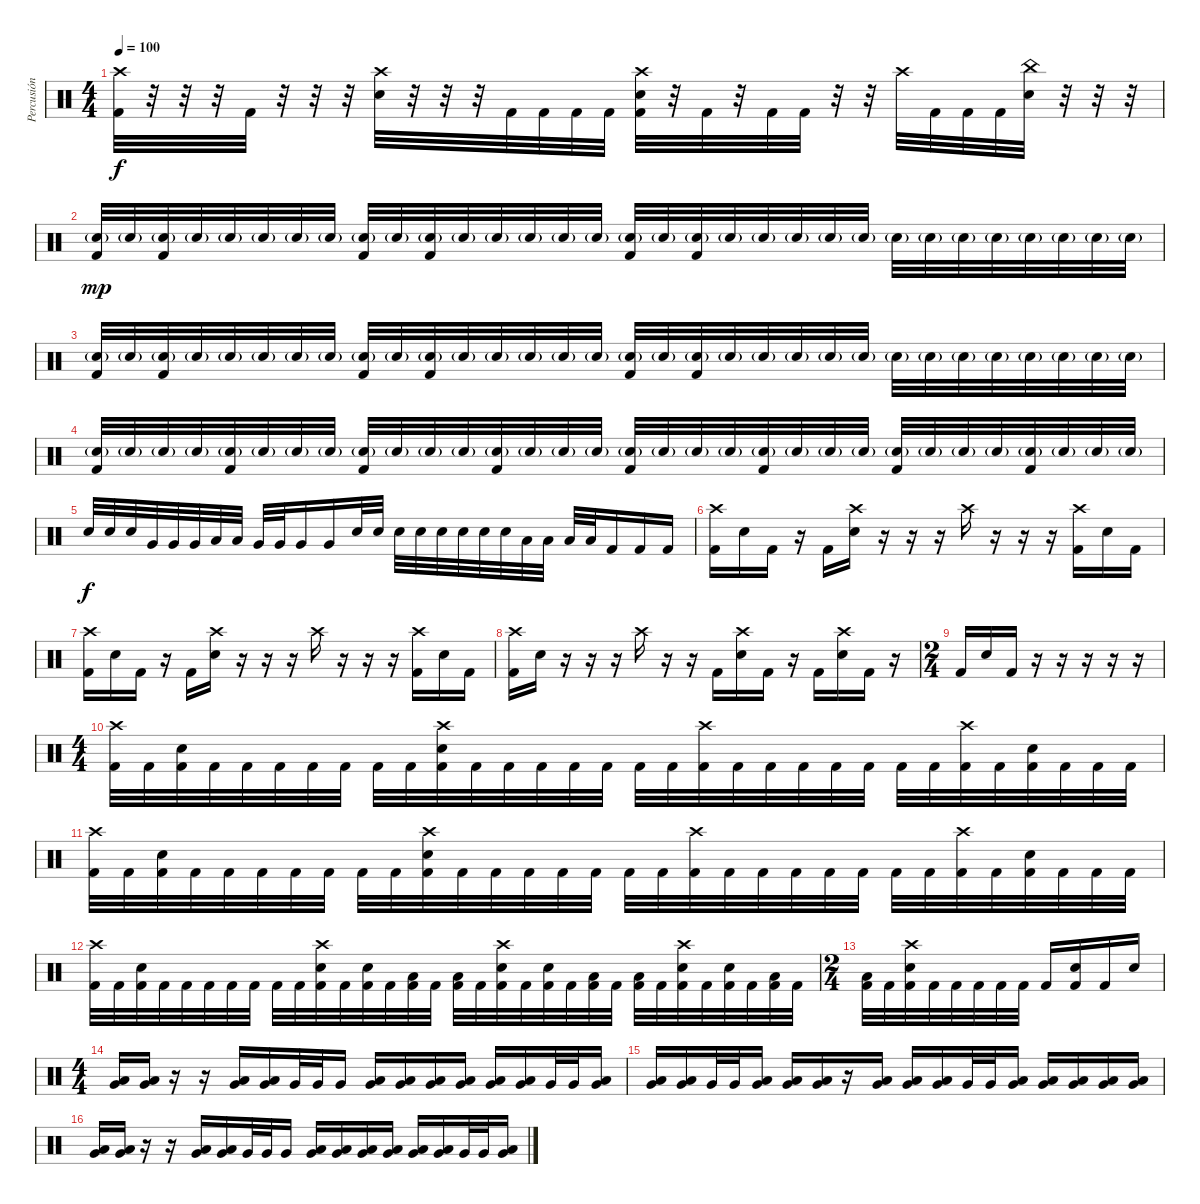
\track ("Percusión" "Percusión") {instrument percussion}
\staff {score}
\articulation defaults
\ts (4 4)
\tempo 100
\clef neutral
\ks c
("Crash high (hit)" "Kick (hit) 2").32{dy f} r.32 r.32 r.32 "Kick (hit) 2".32 r.32 r.32 r.32 ("Crash high (hit)" "Electric Snare (hit)").32 r.32 r.32 r.32 "Kick (hit) 2".32 "Kick (hit) 2".32 "Kick (hit) 2".32 "Kick (hit) 2".32 ("Crash high (hit)" "Electric Snare (hit)" "Kick (hit) 2").32 r.32 "Kick (hit) 2".32 r.32 "Kick (hit) 2".32 "Kick (hit) 2".32 r.32 r.32 "Crash high (hit)".32 "Kick (hit) 2".32 "Kick (hit) 2".32 "Kick (hit) 2".32 ("China (hit)" "Electric Snare (hit)").32 r.32 r.32 r.32 |
("Electric Snare (hit)"{g} "Kick (hit) 2").32{dy mp} "Electric Snare (hit)"{g}.32 ("Electric Snare (hit)"{g} "Kick (hit) 2").32 "Electric Snare (hit)"{g}.32 "Electric Snare (hit)"{g}.32 "Electric Snare (hit)"{g}.32 "Electric Snare (hit)"{g}.32 "Electric Snare (hit)"{g}.32 ("Electric Snare (hit)"{g} "Kick (hit) 2").32 "Electric Snare (hit)"{g}.32 ("Electric Snare (hit)"{g} "Kick (hit) 2").32 "Electric Snare (hit)"{g}.32 "Electric Snare (hit)"{g}.32 "Electric Snare (hit)"{g}.32 "Electric Snare (hit)"{g}.32 "Electric Snare (hit)"{g}.32 ("Electric Snare (hit)"{g} "Kick (hit) 2").32 "Electric Snare (hit)"{g}.32 ("Electric Snare (hit)"{g} "Kick (hit) 2").32 "Electric Snare (hit)"{g}.32 "Electric Snare (hit)"{g}.32 "Electric Snare (hit)"{g}.32 "Electric Snare (hit)"{g}.32 "Electric Snare (hit)"{g}.32 "Electric Snare (hit)"{g}.32 "Electric Snare (hit)"{g}.32 "Electric Snare (hit)"{g}.32 "Electric Snare (hit)"{g}.32 "Electric Snare (hit)"{g}.32 "Electric Snare (hit)"{g}.32 "Electric Snare (hit)"{g}.32 "Electric Snare (hit)"{g}.32 |
("Electric Snare (hit)"{g} "Kick (hit) 2").32 "Electric Snare (hit)"{g}.32 ("Electric Snare (hit)"{g} "Kick (hit) 2").32 "Electric Snare (hit)"{g}.32 "Electric Snare (hit)"{g}.32 "Electric Snare (hit)"{g}.32 "Electric Snare (hit)"{g}.32 "Electric Snare (hit)"{g}.32 ("Electric Snare (hit)"{g} "Kick (hit) 2").32 "Electric Snare (hit)"{g}.32 ("Electric Snare (hit)"{g} "Kick (hit) 2").32 "Electric Snare (hit)"{g}.32 "Electric Snare (hit)"{g}.32 "Electric Snare (hit)"{g}.32 "Electric Snare (hit)"{g}.32 "Electric Snare (hit)"{g}.32 ("Electric Snare (hit)"{g} "Kick (hit) 2").32 "Electric Snare (hit)"{g}.32 ("Electric Snare (hit)"{g} "Kick (hit) 2").32 "Electric Snare (hit)"{g}.32 "Electric Snare (hit)"{g}.32 "Electric Snare (hit)"{g}.32 "Electric Snare (hit)"{g}.32 "Electric Snare (hit)"{g}.32 "Electric Snare (hit)"{g}.32 "Electric Snare (hit)"{g}.32 "Electric Snare (hit)"{g}.32 "Electric Snare (hit)"{g}.32 "Electric Snare (hit)"{g}.32 "Electric Snare (hit)"{g}.32 "Electric Snare (hit)"{g}.32 "Electric Snare (hit)"{g}.32 |
("Electric Snare (hit)"{g} "Kick (hit) 2").32 "Electric Snare (hit)"{g}.32 "Electric Snare (hit)"{g}.32 "Electric Snare (hit)"{g}.32 ("Electric Snare (hit)"{g} "Kick (hit) 2").32 "Electric Snare (hit)"{g}.32 "Electric Snare (hit)"{g}.32 "Electric Snare (hit)"{g}.32 ("Electric Snare (hit)"{g} "Kick (hit) 2").32 "Electric Snare (hit)"{g}.32 "Electric Snare (hit)"{g}.32 "Electric Snare (hit)"{g}.32 ("Electric Snare (hit)"{g} "Kick (hit) 2").32 "Electric Snare (hit)"{g}.32 "Electric Snare (hit)"{g}.32 "Electric Snare (hit)"{g}.32 ("Electric Snare (hit)"{g} "Kick (hit) 2").32 "Electric Snare (hit)"{g}.32 "Electric Snare (hit)"{g}.32 "Electric Snare (hit)"{g}.32 ("Electric Snare (hit)"{g} "Kick (hit) 2").32 "Electric Snare (hit)"{g}.32 "Electric Snare (hit)"{g}.32 "Electric Snare (hit)"{g}.32 ("Electric Snare (hit)"{g} "Kick (hit) 2").32 "Electric Snare (hit)"{g}.32 "Electric Snare (hit)"{g}.32 "Electric Snare (hit)"{g}.32 ("Electric Snare (hit)"{g} "Kick (hit) 2").32 "Electric Snare (hit)"{g}.32 "Electric Snare (hit)"{g}.32 "Electric Snare (hit)"{g}.32 |
"Electric Snare (hit)".32{dy f} "Electric Snare (hit)".32 "Electric Snare (hit)".32 "Very Low Tom (hit)".32 "Very Low Tom (hit)".32 "Very Low Tom (hit)".32 "Low Tom (hit)".32 "Low Tom (hit)".32 "Very Low Tom (hit)".32 "Very Low Tom (hit)".32 "Very Low Tom (hit)".16 "Very Low Tom (hit)".16 "Electric Snare (hit)".32 "Electric Snare (hit)".32 "Electric Snare (hit)".32 "Electric Snare (hit)".32 "Electric Snare (hit)".32 "Electric Snare (hit)".32 "Electric Snare (hit)".32 "Electric Snare (hit)".32 "Low Tom (hit)".32 "Low Tom (hit)".32 "Low Tom (hit)".32 "Low Tom (hit)".32 "Kick (hit) 2".16 "Kick (hit) 2".16 "Kick (hit) 2".16 |
("Crash high (hit)" "Kick (hit) 2").16 "Electric Snare (hit)".16 "Kick (hit) 2".16 r.16 "Kick (hit) 2".16 ("Crash high (hit)" "Electric Snare (hit)").16 r.16 r.16 r.16 "Crash high (hit)".16 r.16 r.16 r.16 ("Crash high (hit)" "Kick (hit) 2").16 "Electric Snare (hit)".16 "Kick (hit) 2".16 |
("Crash high (hit)" "Kick (hit) 2").16 "Electric Snare (hit)".16 "Kick (hit) 2".16 r.16 "Kick (hit) 2".16 ("Crash high (hit)" "Electric Snare (hit)").16 r.16 r.16 r.16 "Crash high (hit)".16 r.16 r.16 r.16 ("Crash high (hit)" "Kick (hit) 2").16 "Electric Snare (hit)".16 "Kick (hit) 2".16 |
("Crash high (hit)" "Kick (hit) 2").16 "Electric Snare (hit)".16 r.16 r.16 r.16 "Crash high (hit)".16 r.16 r.16 "Kick (hit) 2".16 ("Crash high (hit)" "Electric Snare (hit)").16 "Kick (hit) 2".16 r.16 "Kick (hit) 2".16 ("Crash high (hit)" "Electric Snare (hit)").16 "Kick (hit) 2".16 r.16 |
\ts (2 4)
"Kick (hit) 2".16 "Electric Snare (hit)".16 "Kick (hit) 2".16 r.16 r.16 r.16 r.16 r.16 |
\ts (4 4)
("Crash high (hit)" "Kick (hit) 2").32 "Kick (hit) 2".32 ("Electric Snare (hit)" "Kick (hit) 2").32 "Kick (hit) 2".32 "Kick (hit) 2".32 "Kick (hit) 2".32 "Kick (hit) 2".32 "Kick (hit) 2".32 "Kick (hit) 2".32 "Kick (hit) 2".32 ("Crash high (hit)" "Electric Snare (hit)" "Kick (hit) 2").32 "Kick (hit) 2".32 "Kick (hit) 2".32 "Kick (hit) 2".32 "Kick (hit) 2".32 "Kick (hit) 2".32 "Kick (hit) 2".32 "Kick (hit) 2".32 ("Crash high (hit)" "Kick (hit) 2").32 "Kick (hit) 2".32 "Kick (hit) 2".32 "Kick (hit) 2".32 "Kick (hit) 2".32 "Kick (hit) 2".32 "Kick (hit) 2".32 "Kick (hit) 2".32 ("Crash high (hit)" "Kick (hit) 2").32 "Kick (hit) 2".32 ("Electric Snare (hit)" "Kick (hit) 2").32 "Kick (hit) 2".32 "Kick (hit) 2".32 "Kick (hit) 2".32 |
("Crash high (hit)" "Kick (hit) 2").32 "Kick (hit) 2".32 ("Electric Snare (hit)" "Kick (hit) 2").32 "Kick (hit) 2".32 "Kick (hit) 2".32 "Kick (hit) 2".32 "Kick (hit) 2".32 "Kick (hit) 2".32 "Kick (hit) 2".32 "Kick (hit) 2".32 ("Crash high (hit)" "Electric Snare (hit)" "Kick (hit) 2").32 "Kick (hit) 2".32 "Kick (hit) 2".32 "Kick (hit) 2".32 "Kick (hit) 2".32 "Kick (hit) 2".32 "Kick (hit) 2".32 "Kick (hit) 2".32 ("Crash high (hit)" "Kick (hit) 2").32 "Kick (hit) 2".32 "Kick (hit) 2".32 "Kick (hit) 2".32 "Kick (hit) 2".32 "Kick (hit) 2".32 "Kick (hit) 2".32 "Kick (hit) 2".32 ("Crash high (hit)" "Kick (hit) 2").32 "Kick (hit) 2".32 ("Electric Snare (hit)" "Kick (hit) 2").32 "Kick (hit) 2".32 "Kick (hit) 2".32 "Kick (hit) 2".32 |
("Crash high (hit)" "Kick (hit) 2").32 "Kick (hit) 2".32 ("Electric Snare (hit)" "Kick (hit) 2").32 "Kick (hit) 2".32 "Kick (hit) 2".32 "Kick (hit) 2".32 "Kick (hit) 2".32 "Kick (hit) 2".32 "Kick (hit) 2".32 "Kick (hit) 2".32 ("Crash high (hit)" "Electric Snare (hit)" "Kick (hit) 2").32 "Kick (hit) 2".32 ("Electric Snare (hit)" "Kick (hit) 2").32 "Kick (hit) 2".32 ("Low Tom (hit)" "Kick (hit) 2").32 "Kick (hit) 2".32 ("Low Tom (hit)" "Kick (hit) 2").32 "Kick (hit) 2".32 ("Crash high (hit)" "Electric Snare (hit)" "Kick (hit) 2").32 "Kick (hit) 2".32 ("Electric Snare (hit)" "Kick (hit) 2").32 "Kick (hit) 2".32 ("Low Tom (hit)" "Kick (hit) 2").32 "Kick (hit) 2".32 ("Low Tom (hit)" "Kick (hit) 2").32 "Kick (hit) 2".32 ("Crash high (hit)" "Electric Snare (hit)" "Kick (hit) 2").32 "Kick (hit) 2".32 ("Electric Snare (hit)" "Kick (hit) 2").32 "Kick (hit) 2".32 ("Low Tom (hit)" "Kick (hit) 2").32 "Kick (hit) 2".32 |
\ts (2 4)
("Low Tom (hit)" "Kick (hit) 2").32 "Kick (hit) 2".32 ("Crash high (hit)" "Electric Snare (hit)" "Kick (hit) 2").32 "Kick (hit) 2".32 "Kick (hit) 2".32 "Kick (hit) 2".32 "Kick (hit) 2".32 "Kick (hit) 2".32 "Kick (hit) 2".16 ("Electric Snare (hit)" "Kick (hit) 2").16 "Kick (hit) 2".16 "Electric Snare (hit)".16 |
\ts (4 4)
("Low Floor Tom (hit)" "Very Low Tom (hit)").16 ("Low Floor Tom (hit)" "Very Low Tom (hit)").16 r.16 r.16 ("Low Floor Tom (hit)" "Very Low Tom (hit)").16 ("Low Floor Tom (hit)" "Very Low Tom (hit)").16 "Very Low Tom (hit)".32 "Very Low Tom (hit)".32 "Very Low Tom (hit)".16 ("Low Floor Tom (hit)" "Very Low Tom (hit)").16 ("Low Floor Tom (hit)" "Very Low Tom (hit)").16 ("Low Floor Tom (hit)" "Very Low Tom (hit)").16 ("Low Floor Tom (hit)" "Very Low Tom (hit)").16 ("Low Floor Tom (hit)" "Very Low Tom (hit)").16 ("Low Floor Tom (hit)" "Very Low Tom (hit)").16 "Very Low Tom (hit)".32 "Very Low Tom (hit)".32 ("Low Floor Tom (hit)" "Very Low Tom (hit)").16 |
("Low Floor Tom (hit)" "Very Low Tom (hit)").16 ("Low Floor Tom (hit)" "Very Low Tom (hit)").16 "Very Low Tom (hit)".32 "Very Low Tom (hit)".32 ("Low Floor Tom (hit)" "Very Low Tom (hit)").16 ("Low Floor Tom (hit)" "Very Low Tom (hit)").16 ("Low Floor Tom (hit)" "Very Low Tom (hit)").16 r.16 ("Low Floor Tom (hit)" "Very Low Tom (hit)").16 ("Low Floor Tom (hit)" "Very Low Tom (hit)").16 ("Low Floor Tom (hit)" "Very Low Tom (hit)").16 "Very Low Tom (hit)".32 "Very Low Tom (hit)".32 ("Low Floor Tom (hit)" "Very Low Tom (hit)").16 ("Low Floor Tom (hit)" "Very Low Tom (hit)").16 ("Low Floor Tom (hit)" "Very Low Tom (hit)").16 ("Low Floor Tom (hit)" "Very Low Tom (hit)").16 ("Low Floor Tom (hit)" "Very Low Tom (hit)").16 |
("Low Floor Tom (hit)" "Very Low Tom (hit)").16 ("Low Floor Tom (hit)" "Very Low Tom (hit)").16 r.16 r.16 ("Low Floor Tom (hit)" "Very Low Tom (hit)").16 ("Low Floor Tom (hit)" "Very Low Tom (hit)").16 "Very Low Tom (hit)".32 "Very Low Tom (hit)".32 "Very Low Tom (hit)".16 ("Low Floor Tom (hit)" "Very Low Tom (hit)").16 ("Low Floor Tom (hit)" "Very Low Tom (hit)").16 ("Low Floor Tom (hit)" "Very Low Tom (hit)").16 ("Low Floor Tom (hit)" "Very Low Tom (hit)").16 ("Low Floor Tom (hit)" "Very Low Tom (hit)").16 ("Low Floor Tom (hit)" "Very Low Tom (hit)").16 "Very Low Tom (hit)".32 "Very Low Tom (hit)".32 ("Low Floor Tom (hit)" "Very Low Tom (hit)").16
